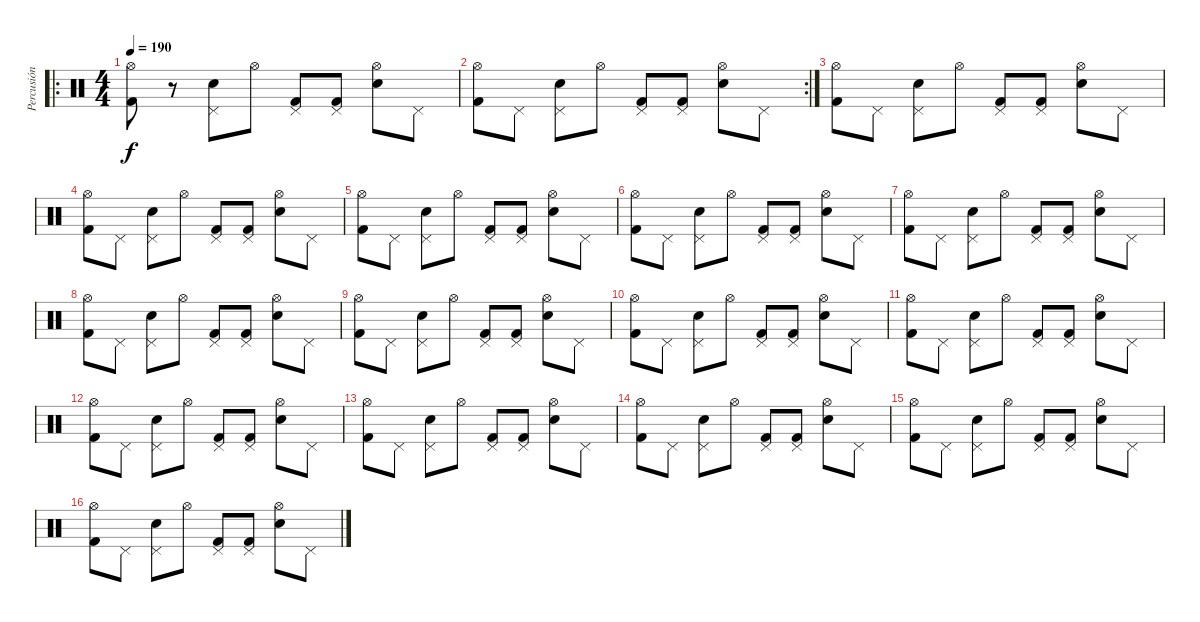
\track ("Percusión" "Percusión") {instrument percussion}
\staff {score}
\articulation defaults
\ro
\ts (4 4)
\tempo 190
\clef neutral
\ks c
("Hi-Hat (open)" "Kick (hit) 2").8{dy f} r.8 ("Pedal Hi-Hat (hit)" "Snare (hit) 2").8 "Hi-Hat (open)".8 ("Pedal Hi-Hat (hit)" "Kick (hit) 2").8 ("Pedal Hi-Hat (hit)" "Kick (hit) 2").8 ("Hi-Hat (open)" "Snare (hit) 2").8 "Pedal Hi-Hat (hit)".8 |
\rc 2
("Hi-Hat (open)" "Kick (hit) 2").8 "Pedal Hi-Hat (hit)".8 ("Pedal Hi-Hat (hit)" "Snare (hit) 2").8 "Hi-Hat (open)".8 ("Pedal Hi-Hat (hit)" "Kick (hit) 2").8 ("Pedal Hi-Hat (hit)" "Kick (hit) 2").8 ("Hi-Hat (open)" "Snare (hit) 2").8 "Pedal Hi-Hat (hit)".8 |
("Hi-Hat (open)" "Kick (hit) 2").8 "Pedal Hi-Hat (hit)".8 ("Pedal Hi-Hat (hit)" "Snare (hit) 2").8 "Hi-Hat (open)".8 ("Pedal Hi-Hat (hit)" "Kick (hit) 2").8 ("Pedal Hi-Hat (hit)" "Kick (hit) 2").8 ("Hi-Hat (open)" "Snare (hit) 2").8 "Pedal Hi-Hat (hit)".8 |
("Hi-Hat (open)" "Kick (hit) 2").8 "Pedal Hi-Hat (hit)".8 ("Pedal Hi-Hat (hit)" "Snare (hit) 2").8 "Hi-Hat (open)".8 ("Pedal Hi-Hat (hit)" "Kick (hit) 2").8 ("Pedal Hi-Hat (hit)" "Kick (hit) 2").8 ("Hi-Hat (open)" "Snare (hit) 2").8 "Pedal Hi-Hat (hit)".8 |
("Hi-Hat (open)" "Kick (hit) 2").8 "Pedal Hi-Hat (hit)".8 ("Pedal Hi-Hat (hit)" "Snare (hit) 2").8 "Hi-Hat (open)".8 ("Pedal Hi-Hat (hit)" "Kick (hit) 2").8 ("Pedal Hi-Hat (hit)" "Kick (hit) 2").8 ("Hi-Hat (open)" "Snare (hit) 2").8 "Pedal Hi-Hat (hit)".8 |
("Hi-Hat (open)" "Kick (hit) 2").8 "Pedal Hi-Hat (hit)".8 ("Pedal Hi-Hat (hit)" "Snare (hit) 2").8 "Hi-Hat (open)".8 ("Pedal Hi-Hat (hit)" "Kick (hit) 2").8 ("Pedal Hi-Hat (hit)" "Kick (hit) 2").8 ("Hi-Hat (open)" "Snare (hit) 2").8 "Pedal Hi-Hat (hit)".8 |
("Hi-Hat (open)" "Kick (hit) 2").8 "Pedal Hi-Hat (hit)".8 ("Pedal Hi-Hat (hit)" "Snare (hit) 2").8 "Hi-Hat (open)".8 ("Pedal Hi-Hat (hit)" "Kick (hit) 2").8 ("Pedal Hi-Hat (hit)" "Kick (hit) 2").8 ("Hi-Hat (open)" "Snare (hit) 2").8 "Pedal Hi-Hat (hit)".8 |
("Hi-Hat (open)" "Kick (hit) 2").8 "Pedal Hi-Hat (hit)".8 ("Pedal Hi-Hat (hit)" "Snare (hit) 2").8 "Hi-Hat (open)".8 ("Pedal Hi-Hat (hit)" "Kick (hit) 2").8 ("Pedal Hi-Hat (hit)" "Kick (hit) 2").8 ("Hi-Hat (open)" "Snare (hit) 2").8 "Pedal Hi-Hat (hit)".8 |
("Hi-Hat (open)" "Kick (hit) 2").8 "Pedal Hi-Hat (hit)".8 ("Pedal Hi-Hat (hit)" "Snare (hit) 2").8 "Hi-Hat (open)".8 ("Pedal Hi-Hat (hit)" "Kick (hit) 2").8 ("Pedal Hi-Hat (hit)" "Kick (hit) 2").8 ("Hi-Hat (open)" "Snare (hit) 2").8 "Pedal Hi-Hat (hit)".8 |
("Hi-Hat (open)" "Kick (hit) 2").8 "Pedal Hi-Hat (hit)".8 ("Pedal Hi-Hat (hit)" "Snare (hit) 2").8 "Hi-Hat (open)".8 ("Pedal Hi-Hat (hit)" "Kick (hit) 2").8 ("Pedal Hi-Hat (hit)" "Kick (hit) 2").8 ("Hi-Hat (open)" "Snare (hit) 2").8 "Pedal Hi-Hat (hit)".8 |
("Hi-Hat (open)" "Kick (hit) 2").8 "Pedal Hi-Hat (hit)".8 ("Pedal Hi-Hat (hit)" "Snare (hit) 2").8 "Hi-Hat (open)".8 ("Pedal Hi-Hat (hit)" "Kick (hit) 2").8 ("Pedal Hi-Hat (hit)" "Kick (hit) 2").8 ("Hi-Hat (open)" "Snare (hit) 2").8 "Pedal Hi-Hat (hit)".8 |
("Hi-Hat (open)" "Kick (hit) 2").8 "Pedal Hi-Hat (hit)".8 ("Pedal Hi-Hat (hit)" "Snare (hit) 2").8 "Hi-Hat (open)".8 ("Pedal Hi-Hat (hit)" "Kick (hit) 2").8 ("Pedal Hi-Hat (hit)" "Kick (hit) 2").8 ("Hi-Hat (open)" "Snare (hit) 2").8 "Pedal Hi-Hat (hit)".8 |
("Hi-Hat (open)" "Kick (hit) 2").8 "Pedal Hi-Hat (hit)".8 ("Pedal Hi-Hat (hit)" "Snare (hit) 2").8 "Hi-Hat (open)".8 ("Pedal Hi-Hat (hit)" "Kick (hit) 2").8 ("Pedal Hi-Hat (hit)" "Kick (hit) 2").8 ("Hi-Hat (open)" "Snare (hit) 2").8 "Pedal Hi-Hat (hit)".8 |
("Hi-Hat (open)" "Kick (hit) 2").8 "Pedal Hi-Hat (hit)".8 ("Pedal Hi-Hat (hit)" "Snare (hit) 2").8 "Hi-Hat (open)".8 ("Pedal Hi-Hat (hit)" "Kick (hit) 2").8 ("Pedal Hi-Hat (hit)" "Kick (hit) 2").8 ("Hi-Hat (open)" "Snare (hit) 2").8 "Pedal Hi-Hat (hit)".8 |
("Hi-Hat (open)" "Kick (hit) 2").8 "Pedal Hi-Hat (hit)".8 ("Pedal Hi-Hat (hit)" "Snare (hit) 2").8 "Hi-Hat (open)".8 ("Pedal Hi-Hat (hit)" "Kick (hit) 2").8 ("Pedal Hi-Hat (hit)" "Kick (hit) 2").8 ("Hi-Hat (open)" "Snare (hit) 2").8 "Pedal Hi-Hat (hit)".8 |
("Hi-Hat (open)" "Kick (hit) 2").8 "Pedal Hi-Hat (hit)".8 ("Pedal Hi-Hat (hit)" "Snare (hit) 2").8 "Hi-Hat (open)".8 ("Pedal Hi-Hat (hit)" "Kick (hit) 2").8 ("Pedal Hi-Hat (hit)" "Kick (hit) 2").8 ("Hi-Hat (open)" "Snare (hit) 2").8 "Pedal Hi-Hat (hit)".8
